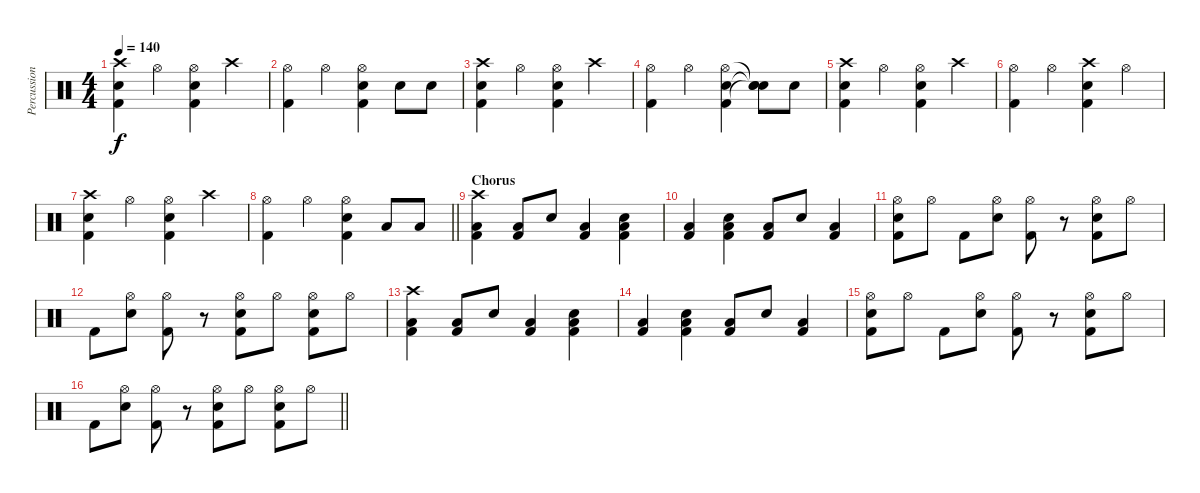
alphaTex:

\track ("Percussion" "Percussion") {instrument percussion}
\staff {score}
\articulation defaults
\ts (4 4)
\tempo 140
\clef neutral
\ks c
("Crash high (hit)" "Snare (hit) 2" "Kick (hit) 2").4{dy f} "Hi-Hat (open)".4 ("Hi-Hat (open)" "Snare (hit) 2" "Kick (hit) 2").4 "Crash high (hit)".4 |
("Hi-Hat (open)" "Kick (hit) 2").4 "Hi-Hat (open)".4 ("Hi-Hat (open)" "Snare (hit) 2" "Kick (hit) 2").4 "Snare (hit) 2".8 "Snare (hit) 2".8 |
("Crash high (hit)" "Snare (hit) 2" "Kick (hit) 2").4 "Hi-Hat (open)".4 ("Hi-Hat (open)" "Snare (hit) 2" "Kick (hit) 2").4 "Crash high (hit)".4 |
("Hi-Hat (open)" "Kick (hit) 2").4 "Hi-Hat (open)".4 ("Hi-Hat (open)" "Snare (hit) 2" "Kick (hit) 2").4 ("Snare (hit)"{t} "Snare (hit) 2"{t} "Snare (hit)"{t}).8 "Snare (hit) 2".8 |
("Crash high (hit)" "Snare (hit) 2" "Kick (hit) 2").4 "Hi-Hat (open)".4 ("Hi-Hat (open)" "Snare (hit) 2" "Kick (hit) 2").4 "Crash high (hit)".4 |
("Hi-Hat (open)" "Kick (hit) 2").4 "Hi-Hat (open)".4 ("Crash high (hit)" "Snare (hit) 2" "Kick (hit) 2").4 "Hi-Hat (open)".4 |
("Crash high (hit)" "Snare (hit) 2" "Kick (hit) 2").4 "Hi-Hat (open)".4 ("Hi-Hat (open)" "Snare (hit) 2" "Kick (hit) 2").4 "Crash high (hit)".4 |
\barLineRight lightlight
("Hi-Hat (open)" "Kick (hit) 2").4 "Hi-Hat (open)".4 ("Hi-Hat (open)" "Snare (hit) 2" "Kick (hit) 2").4 "Low Floor Tom (hit)".8 "Low Floor Tom (hit)".8 |
\section ("" "Chorus")
("Low Floor Tom (hit)" "Crash high (hit)" "Kick (hit) 2").4 ("Low Floor Tom (hit)" "Kick (hit) 2").8 "Snare (hit) 2".8 ("Low Floor Tom (hit)" "Kick (hit) 2").4 ("Low Floor Tom (hit)" "Snare (hit) 2" "Kick (hit) 2").4 |
("Low Floor Tom (hit)" "Kick (hit) 2").4 ("Low Floor Tom (hit)" "Snare (hit) 2" "Kick (hit) 2").4 ("Low Floor Tom (hit)" "Kick (hit) 2").8 "Snare (hit) 2".8 ("Low Floor Tom (hit)" "Kick (hit) 2").4 |
("Hi-Hat (open)" "Snare (hit) 2" "Kick (hit) 2").8 "Hi-Hat (open)".8 "Kick (hit) 2".8 ("Hi-Hat (open)" "Snare (hit) 2").8 ("Hi-Hat (open)" "Kick (hit) 2").8 r.8 ("Hi-Hat (open)" "Snare (hit) 2" "Kick (hit) 2").8 "Hi-Hat (open)".8 |
"Kick (hit) 2".8 ("Hi-Hat (open)" "Snare (hit) 2").8 ("Hi-Hat (open)" "Kick (hit) 2").8 r.8 ("Hi-Hat (open)" "Snare (hit) 2" "Kick (hit) 2").8 "Hi-Hat (open)".8 ("Hi-Hat (open)" "Snare (hit) 2" "Kick (hit) 2").8 "Hi-Hat (open)".8 |
("Low Floor Tom (hit)" "Crash high (hit)" "Kick (hit) 2").4 ("Low Floor Tom (hit)" "Kick (hit) 2").8 "Snare (hit) 2".8 ("Low Floor Tom (hit)" "Kick (hit) 2").4 ("Low Floor Tom (hit)" "Snare (hit) 2" "Kick (hit) 2").4 |
("Low Floor Tom (hit)" "Kick (hit) 2").4 ("Low Floor Tom (hit)" "Snare (hit) 2" "Kick (hit) 2").4 ("Low Floor Tom (hit)" "Kick (hit) 2").8 "Snare (hit) 2".8 ("Low Floor Tom (hit)" "Kick (hit) 2").4 |
("Hi-Hat (open)" "Snare (hit) 2" "Kick (hit) 2").8 "Hi-Hat (open)".8 "Kick (hit) 2".8 ("Hi-Hat (open)" "Snare (hit) 2").8 ("Hi-Hat (open)" "Kick (hit) 2").8 r.8 ("Hi-Hat (open)" "Snare (hit) 2" "Kick (hit) 2").8 "Hi-Hat (open)".8 |
\barLineRight lightlight "Kick (hit) 2".8
("Hi-Hat (open)" "Snare (hit) 2").8 ("Hi-Hat (open)" "Kick (hit) 2").8 r.8 ("Hi-Hat (open)" "Snare (hit) 2" "Kick (hit) 2").8 "Hi-Hat (open)".8 ("Hi-Hat (open)" "Snare (hit) 2" "Kick (hit) 2").8 "Hi-Hat (open)".8
